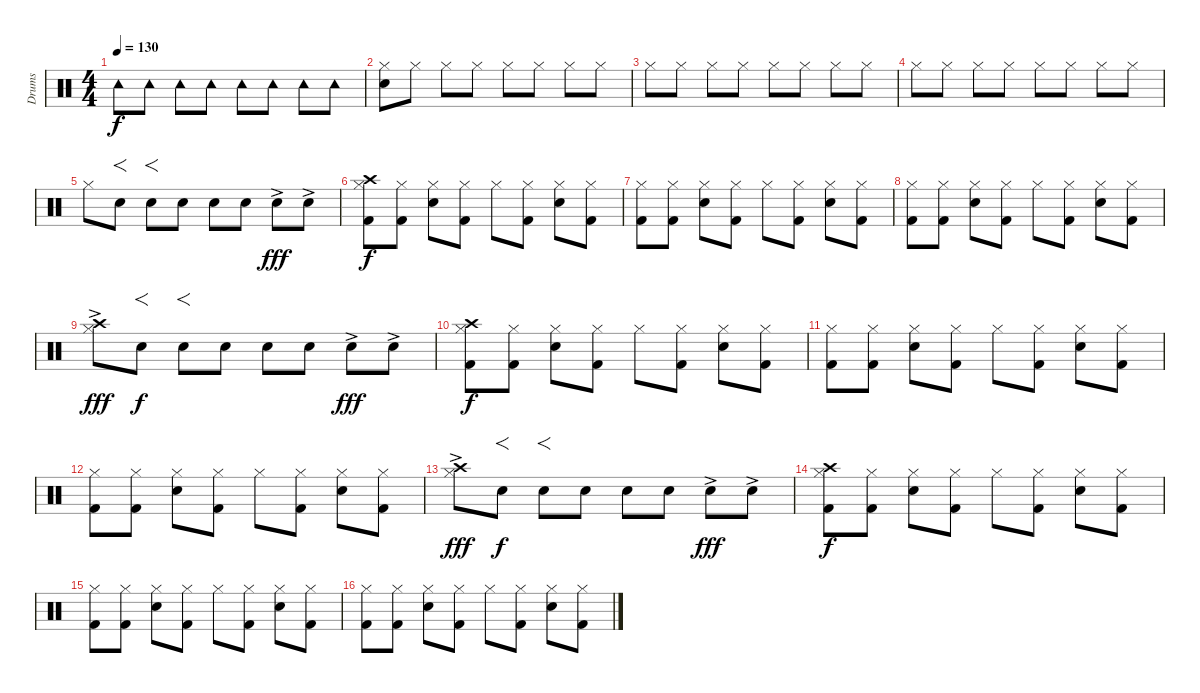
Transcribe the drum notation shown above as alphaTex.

\track ("Drums" "Drums") {instrument percussion}
\staff {score}
\articulation defaults
\ts (4 4)
\tempo 130
\clef neutral
\ks c "Tambourine (hit)".8{dy f} "Tambourine (hit)".8 "Tambourine (hit)".8 "Tambourine (hit)".8 "Tambourine (hit)".8 "Tambourine (hit)".8 "Tambourine (hit)".8 "Tambourine (hit)".8
|
("Hi-Hat (closed)" "Snare (hit) 2").8 "Hi-Hat (closed)".8 "Hi-Hat (closed)".8 "Hi-Hat (closed)".8 "Hi-Hat (closed)".8 "Hi-Hat (closed)".8 "Hi-Hat (closed)".8 "Hi-Hat (closed)".8 |
"Hi-Hat (closed)".8 "Hi-Hat (closed)".8 "Hi-Hat (closed)".8 "Hi-Hat (closed)".8 "Hi-Hat (closed)".8 "Hi-Hat (closed)".8 "Hi-Hat (closed)".8 "Hi-Hat (closed)".8 |
"Hi-Hat (closed)".8 "Hi-Hat (closed)".8 "Hi-Hat (closed)".8 "Hi-Hat (closed)".8 "Hi-Hat (closed)".8 "Hi-Hat (closed)".8 "Hi-Hat (closed)".8 "Hi-Hat (closed)".8 |
"Hi-Hat (closed)".8 "Snare (hit) 2".8{f} "Snare (hit) 2".8{f} "Snare (hit) 2".8 "Snare (hit) 2".8 "Snare (hit) 2".8 "Snare (hit) 2"{ac}.8{dy fff} "Snare (hit) 2"{ac}.8 |
("Crash high (hit)" "Hi-Hat (closed)" "Kick (hit) 2").8{dy f} ("Hi-Hat (closed)" "Kick (hit) 2").8 ("Hi-Hat (closed)" "Snare (hit) 2").8 ("Hi-Hat (closed)" "Kick (hit) 2").8 "Hi-Hat (closed)".8 ("Hi-Hat (closed)" "Kick (hit) 2").8 ("Hi-Hat (closed)" "Snare (hit) 2").8 ("Hi-Hat (closed)" "Kick (hit) 2").8 |
("Hi-Hat (closed)" "Kick (hit) 2").8 ("Hi-Hat (closed)" "Kick (hit) 2").8 ("Hi-Hat (closed)" "Snare (hit) 2").8 ("Hi-Hat (closed)" "Kick (hit) 2").8 "Hi-Hat (closed)".8 ("Hi-Hat (closed)" "Kick (hit) 2").8 ("Hi-Hat (closed)" "Snare (hit) 2").8 ("Hi-Hat (closed)" "Kick (hit) 2").8 |
("Hi-Hat (closed)" "Kick (hit) 2").8 ("Hi-Hat (closed)" "Kick (hit) 2").8 ("Hi-Hat (closed)" "Snare (hit) 2").8 ("Hi-Hat (closed)" "Kick (hit) 2").8 "Hi-Hat (closed)".8 ("Hi-Hat (closed)" "Kick (hit) 2").8 ("Hi-Hat (closed)" "Snare (hit) 2").8 ("Hi-Hat (closed)" "Kick (hit) 2").8 |
("Crash high (hit)"{ac} "Hi-Hat (closed)").8{dy fff} "Snare (hit) 2".8{f dy f} "Snare (hit) 2".8{f} "Snare (hit) 2".8 "Snare (hit) 2".8 "Snare (hit) 2".8 "Snare (hit) 2"{ac}.8{dy fff} "Snare (hit) 2"{ac}.8 |
("Crash high (hit)" "Hi-Hat (closed)" "Kick (hit) 2").8{dy f} ("Hi-Hat (closed)" "Kick (hit) 2").8 ("Hi-Hat (closed)" "Snare (hit) 2").8 ("Hi-Hat (closed)" "Kick (hit) 2").8 "Hi-Hat (closed)".8 ("Hi-Hat (closed)" "Kick (hit) 2").8 ("Hi-Hat (closed)" "Snare (hit) 2").8 ("Hi-Hat (closed)" "Kick (hit) 2").8 |
("Hi-Hat (closed)" "Kick (hit) 2").8 ("Hi-Hat (closed)" "Kick (hit) 2").8 ("Hi-Hat (closed)" "Snare (hit) 2").8 ("Hi-Hat (closed)" "Kick (hit) 2").8 "Hi-Hat (closed)".8 ("Hi-Hat (closed)" "Kick (hit) 2").8 ("Hi-Hat (closed)" "Snare (hit) 2").8 ("Hi-Hat (closed)" "Kick (hit) 2").8 |
("Hi-Hat (closed)" "Kick (hit) 2").8 ("Hi-Hat (closed)" "Kick (hit) 2").8 ("Hi-Hat (closed)" "Snare (hit) 2").8 ("Hi-Hat (closed)" "Kick (hit) 2").8 "Hi-Hat (closed)".8 ("Hi-Hat (closed)" "Kick (hit) 2").8 ("Hi-Hat (closed)" "Snare (hit) 2").8 ("Hi-Hat (closed)" "Kick (hit) 2").8 |
("Crash high (hit)"{ac} "Hi-Hat (closed)").8{dy fff} "Snare (hit) 2".8{f dy f} "Snare (hit) 2".8{f} "Snare (hit) 2".8 "Snare (hit) 2".8 "Snare (hit) 2".8 "Snare (hit) 2"{ac}.8{dy fff} "Snare (hit) 2"{ac}.8 |
("Crash high (hit)" "Hi-Hat (closed)" "Kick (hit) 2").8{dy f} ("Hi-Hat (closed)" "Kick (hit) 2").8 ("Hi-Hat (closed)" "Snare (hit) 2").8 ("Hi-Hat (closed)" "Kick (hit) 2").8 "Hi-Hat (closed)".8 ("Hi-Hat (closed)" "Kick (hit) 2").8 ("Hi-Hat (closed)" "Snare (hit) 2").8 ("Hi-Hat (closed)" "Kick (hit) 2").8 |
("Hi-Hat (closed)" "Kick (hit) 2").8 ("Hi-Hat (closed)" "Kick (hit) 2").8 ("Hi-Hat (closed)" "Snare (hit) 2").8 ("Hi-Hat (closed)" "Kick (hit) 2").8 "Hi-Hat (closed)".8 ("Hi-Hat (closed)" "Kick (hit) 2").8 ("Hi-Hat (closed)" "Snare (hit) 2").8 ("Hi-Hat (closed)" "Kick (hit) 2").8 |
("Hi-Hat (closed)" "Kick (hit) 2").8 ("Hi-Hat (closed)" "Kick (hit) 2").8 ("Hi-Hat (closed)" "Snare (hit) 2").8 ("Hi-Hat (closed)" "Kick (hit) 2").8 "Hi-Hat (closed)".8 ("Hi-Hat (closed)" "Kick (hit) 2").8 ("Hi-Hat (closed)" "Snare (hit) 2").8 ("Hi-Hat (closed)" "Kick (hit) 2").8
